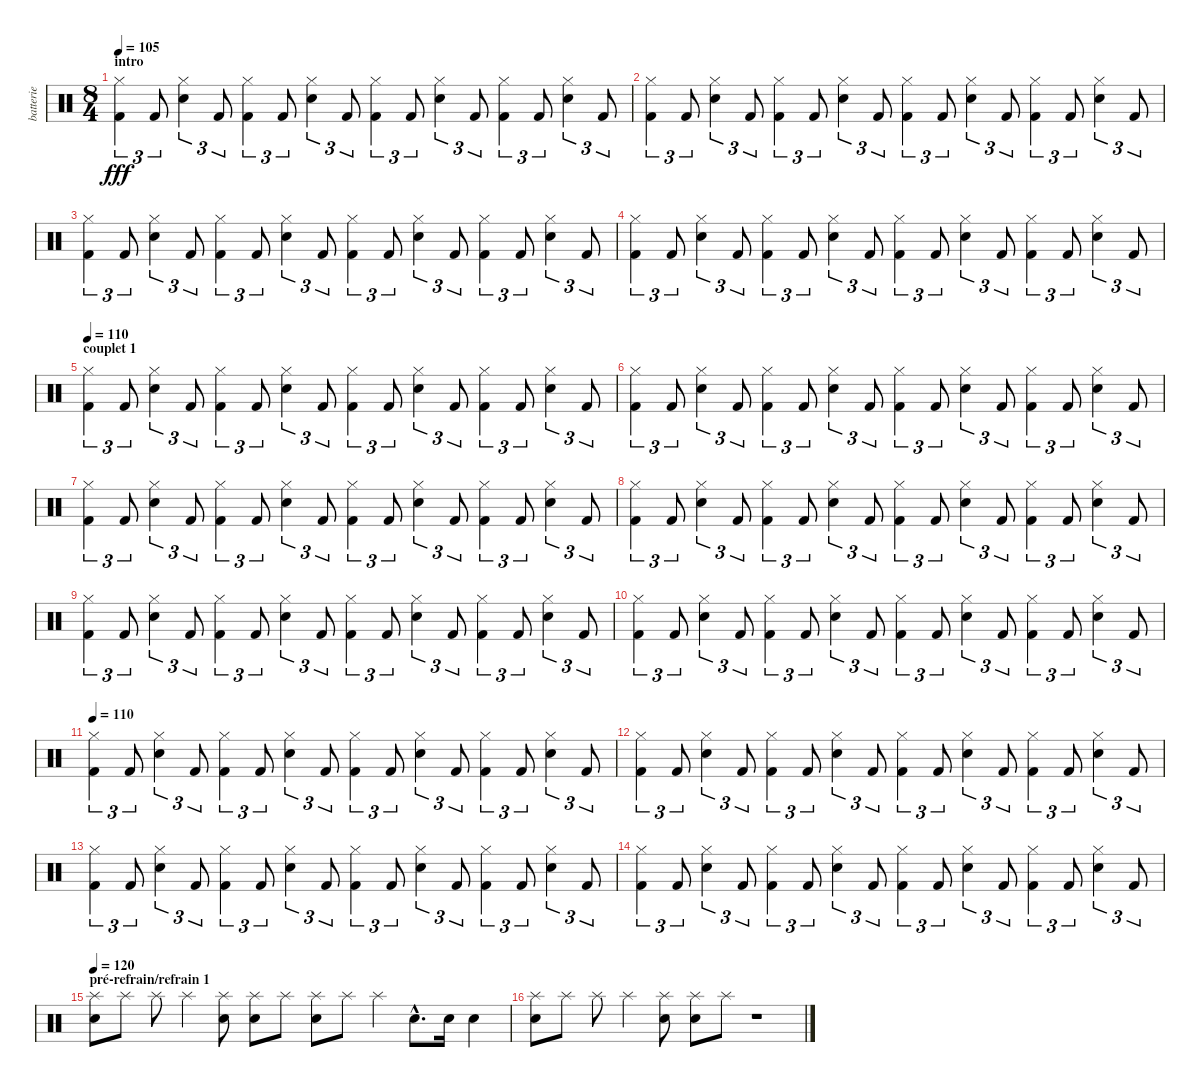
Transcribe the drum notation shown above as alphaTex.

\track ("batterie" "batterie") {instrument percussion}
\staff {score}
\articulation defaults
\ts (8 4)
\section ("" "intro")
\tempo 105
\tempo 110
\tempo 105
\clef neutral
\ks c
("Hi-Hat (closed)" "Kick (hit) 2").4{tu (3 2) dy fff volume 11} "Kick (hit) 2".8{tu (3 2)} ("Hi-Hat (closed)" "Electric Snare (hit)").4{tu (3 2)} "Kick (hit) 2".8{tu (3 2)} ("Hi-Hat (closed)" "Kick (hit) 2").4{tu (3 2)} "Kick (hit) 2".8{tu (3 2)} ("Hi-Hat (closed)" "Electric Snare (hit)").4{tu (3 2)} "Kick (hit) 2".8{tu (3 2)} ("Hi-Hat (closed)" "Kick (hit) 2").4{tu (3 2)} "Kick (hit) 2".8{tu (3 2)} ("Hi-Hat (closed)" "Electric Snare (hit)").4{tu (3 2)} "Kick (hit) 2".8{tu (3 2)} ("Hi-Hat (closed)" "Kick (hit) 2").4{tu (3 2)} "Kick (hit) 2".8{tu (3 2)} ("Hi-Hat (closed)" "Electric Snare (hit)").4{tu (3 2)} "Kick (hit) 2".8{tu (3 2)} |
("Hi-Hat (closed)" "Kick (hit) 2").4{tu (3 2)} "Kick (hit) 2".8{tu (3 2)} ("Hi-Hat (closed)" "Electric Snare (hit)").4{tu (3 2)} "Kick (hit) 2".8{tu (3 2)} ("Hi-Hat (closed)" "Kick (hit) 2").4{tu (3 2)} "Kick (hit) 2".8{tu (3 2)} ("Hi-Hat (closed)" "Electric Snare (hit)").4{tu (3 2)} "Kick (hit) 2".8{tu (3 2)} ("Hi-Hat (closed)" "Kick (hit) 2").4{tu (3 2)} "Kick (hit) 2".8{tu (3 2)} ("Hi-Hat (closed)" "Electric Snare (hit)").4{tu (3 2)} "Kick (hit) 2".8{tu (3 2)} ("Hi-Hat (closed)" "Kick (hit) 2").4{tu (3 2)} "Kick (hit) 2".8{tu (3 2)} ("Hi-Hat (closed)" "Electric Snare (hit)").4{tu (3 2)} "Kick (hit) 2".8{tu (3 2)} |
("Hi-Hat (closed)" "Kick (hit) 2").4{tu (3 2)} "Kick (hit) 2".8{tu (3 2)} ("Hi-Hat (closed)" "Electric Snare (hit)").4{tu (3 2)} "Kick (hit) 2".8{tu (3 2)} ("Hi-Hat (closed)" "Kick (hit) 2").4{tu (3 2)} "Kick (hit) 2".8{tu (3 2)} ("Hi-Hat (closed)" "Electric Snare (hit)").4{tu (3 2)} "Kick (hit) 2".8{tu (3 2)} ("Hi-Hat (closed)" "Kick (hit) 2").4{tu (3 2)} "Kick (hit) 2".8{tu (3 2)} ("Hi-Hat (closed)" "Electric Snare (hit)").4{tu (3 2)} "Kick (hit) 2".8{tu (3 2)} ("Hi-Hat (closed)" "Kick (hit) 2").4{tu (3 2)} "Kick (hit) 2".8{tu (3 2)} ("Hi-Hat (closed)" "Electric Snare (hit)").4{tu (3 2)} "Kick (hit) 2".8{tu (3 2)} |
("Hi-Hat (closed)" "Kick (hit) 2").4{tu (3 2)} "Kick (hit) 2".8{tu (3 2)} ("Hi-Hat (closed)" "Electric Snare (hit)").4{tu (3 2)} "Kick (hit) 2".8{tu (3 2)} ("Hi-Hat (closed)" "Kick (hit) 2").4{tu (3 2)} "Kick (hit) 2".8{tu (3 2)} ("Hi-Hat (closed)" "Electric Snare (hit)").4{tu (3 2)} "Kick (hit) 2".8{tu (3 2)} ("Hi-Hat (closed)" "Kick (hit) 2").4{tu (3 2)} "Kick (hit) 2".8{tu (3 2)} ("Hi-Hat (closed)" "Electric Snare (hit)").4{tu (3 2)} "Kick (hit) 2".8{tu (3 2)} ("Hi-Hat (closed)" "Kick (hit) 2").4{tu (3 2)} "Kick (hit) 2".8{tu (3 2)} ("Hi-Hat (closed)" "Electric Snare (hit)").4{tu (3 2)} "Kick (hit) 2".8{tu (3 2)} |
\section ("" "couplet 1")
\tempo 110
("Hi-Hat (closed)" "Kick (hit) 2").4{tu (3 2) volume 11} "Kick (hit) 2".8{tu (3 2)} ("Hi-Hat (closed)" "Electric Snare (hit)").4{tu (3 2)} "Kick (hit) 2".8{tu (3 2)} ("Hi-Hat (closed)" "Kick (hit) 2").4{tu (3 2)} "Kick (hit) 2".8{tu (3 2)} ("Hi-Hat (closed)" "Electric Snare (hit)").4{tu (3 2)} "Kick (hit) 2".8{tu (3 2)} ("Hi-Hat (closed)" "Kick (hit) 2").4{tu (3 2)} "Kick (hit) 2".8{tu (3 2)} ("Hi-Hat (closed)" "Electric Snare (hit)").4{tu (3 2)} "Kick (hit) 2".8{tu (3 2)} ("Hi-Hat (closed)" "Kick (hit) 2").4{tu (3 2)} "Kick (hit) 2".8{tu (3 2)} ("Hi-Hat (closed)" "Electric Snare (hit)").4{tu (3 2)} "Kick (hit) 2".8{tu (3 2)} |
("Hi-Hat (closed)" "Kick (hit) 2").4{tu (3 2)} "Kick (hit) 2".8{tu (3 2)} ("Hi-Hat (closed)" "Electric Snare (hit)").4{tu (3 2)} "Kick (hit) 2".8{tu (3 2)} ("Hi-Hat (closed)" "Kick (hit) 2").4{tu (3 2)} "Kick (hit) 2".8{tu (3 2)} ("Hi-Hat (closed)" "Electric Snare (hit)").4{tu (3 2)} "Kick (hit) 2".8{tu (3 2)} ("Hi-Hat (closed)" "Kick (hit) 2").4{tu (3 2)} "Kick (hit) 2".8{tu (3 2)} ("Hi-Hat (closed)" "Electric Snare (hit)").4{tu (3 2)} "Kick (hit) 2".8{tu (3 2)} ("Hi-Hat (closed)" "Kick (hit) 2").4{tu (3 2)} "Kick (hit) 2".8{tu (3 2)} ("Hi-Hat (closed)" "Electric Snare (hit)").4{tu (3 2)} "Kick (hit) 2".8{tu (3 2)} |
("Hi-Hat (closed)" "Kick (hit) 2").4{tu (3 2)} "Kick (hit) 2".8{tu (3 2)} ("Hi-Hat (closed)" "Electric Snare (hit)").4{tu (3 2)} "Kick (hit) 2".8{tu (3 2)} ("Hi-Hat (closed)" "Kick (hit) 2").4{tu (3 2)} "Kick (hit) 2".8{tu (3 2)} ("Hi-Hat (closed)" "Electric Snare (hit)").4{tu (3 2)} "Kick (hit) 2".8{tu (3 2)} ("Hi-Hat (closed)" "Kick (hit) 2").4{tu (3 2)} "Kick (hit) 2".8{tu (3 2)} ("Hi-Hat (closed)" "Electric Snare (hit)").4{tu (3 2)} "Kick (hit) 2".8{tu (3 2)} ("Hi-Hat (closed)" "Kick (hit) 2").4{tu (3 2)} "Kick (hit) 2".8{tu (3 2)} ("Hi-Hat (closed)" "Electric Snare (hit)").4{tu (3 2)} "Kick (hit) 2".8{tu (3 2)} |
("Hi-Hat (closed)" "Kick (hit) 2").4{tu (3 2)} "Kick (hit) 2".8{tu (3 2)} ("Hi-Hat (closed)" "Electric Snare (hit)").4{tu (3 2)} "Kick (hit) 2".8{tu (3 2)} ("Hi-Hat (closed)" "Kick (hit) 2").4{tu (3 2)} "Kick (hit) 2".8{tu (3 2)} ("Hi-Hat (closed)" "Electric Snare (hit)").4{tu (3 2)} "Kick (hit) 2".8{tu (3 2)} ("Hi-Hat (closed)" "Kick (hit) 2").4{tu (3 2)} "Kick (hit) 2".8{tu (3 2)} ("Hi-Hat (closed)" "Electric Snare (hit)").4{tu (3 2)} "Kick (hit) 2".8{tu (3 2)} ("Hi-Hat (closed)" "Kick (hit) 2").4{tu (3 2)} "Kick (hit) 2".8{tu (3 2)} ("Hi-Hat (closed)" "Electric Snare (hit)").4{tu (3 2)} "Kick (hit) 2".8{tu (3 2)} |
("Hi-Hat (closed)" "Kick (hit) 2").4{tu (3 2) volume 13} "Kick (hit) 2".8{tu (3 2)} ("Hi-Hat (closed)" "Electric Snare (hit)").4{tu (3 2)} "Kick (hit) 2".8{tu (3 2)} ("Hi-Hat (closed)" "Kick (hit) 2").4{tu (3 2)} "Kick (hit) 2".8{tu (3 2)} ("Hi-Hat (closed)" "Electric Snare (hit)").4{tu (3 2)} "Kick (hit) 2".8{tu (3 2)} ("Hi-Hat (closed)" "Kick (hit) 2").4{tu (3 2)} "Kick (hit) 2".8{tu (3 2)} ("Hi-Hat (closed)" "Electric Snare (hit)").4{tu (3 2)} "Kick (hit) 2".8{tu (3 2)} ("Hi-Hat (closed)" "Kick (hit) 2").4{tu (3 2)} "Kick (hit) 2".8{tu (3 2)} ("Hi-Hat (closed)" "Electric Snare (hit)").4{tu (3 2)} "Kick (hit) 2".8{tu (3 2)} |
("Hi-Hat (closed)" "Kick (hit) 2").4{tu (3 2)} "Kick (hit) 2".8{tu (3 2)} ("Hi-Hat (closed)" "Electric Snare (hit)").4{tu (3 2)} "Kick (hit) 2".8{tu (3 2)} ("Hi-Hat (closed)" "Kick (hit) 2").4{tu (3 2)} "Kick (hit) 2".8{tu (3 2)} ("Hi-Hat (closed)" "Electric Snare (hit)").4{tu (3 2)} "Kick (hit) 2".8{tu (3 2)} ("Hi-Hat (closed)" "Kick (hit) 2").4{tu (3 2)} "Kick (hit) 2".8{tu (3 2)} ("Hi-Hat (closed)" "Electric Snare (hit)").4{tu (3 2)} "Kick (hit) 2".8{tu (3 2)} ("Hi-Hat (closed)" "Kick (hit) 2").4{tu (3 2)} "Kick (hit) 2".8{tu (3 2)} ("Hi-Hat (closed)" "Electric Snare (hit)").4{tu (3 2)} "Kick (hit) 2".8{tu (3 2)} |
\tempo 110
("Hi-Hat (closed)" "Kick (hit) 2").4{tu (3 2) volume 11} "Kick (hit) 2".8{tu (3 2)} ("Hi-Hat (closed)" "Electric Snare (hit)").4{tu (3 2)} "Kick (hit) 2".8{tu (3 2)} ("Hi-Hat (closed)" "Kick (hit) 2").4{tu (3 2)} "Kick (hit) 2".8{tu (3 2)} ("Hi-Hat (closed)" "Electric Snare (hit)").4{tu (3 2)} "Kick (hit) 2".8{tu (3 2)} ("Hi-Hat (closed)" "Kick (hit) 2").4{tu (3 2)} "Kick (hit) 2".8{tu (3 2)} ("Hi-Hat (closed)" "Electric Snare (hit)").4{tu (3 2)} "Kick (hit) 2".8{tu (3 2)} ("Hi-Hat (closed)" "Kick (hit) 2").4{tu (3 2)} "Kick (hit) 2".8{tu (3 2)} ("Hi-Hat (closed)" "Electric Snare (hit)").4{tu (3 2)} "Kick (hit) 2".8{tu (3 2)} |
("Hi-Hat (closed)" "Kick (hit) 2").4{tu (3 2)} "Kick (hit) 2".8{tu (3 2)} ("Hi-Hat (closed)" "Electric Snare (hit)").4{tu (3 2)} "Kick (hit) 2".8{tu (3 2)} ("Hi-Hat (closed)" "Kick (hit) 2").4{tu (3 2)} "Kick (hit) 2".8{tu (3 2)} ("Hi-Hat (closed)" "Electric Snare (hit)").4{tu (3 2)} "Kick (hit) 2".8{tu (3 2)} ("Hi-Hat (closed)" "Kick (hit) 2").4{tu (3 2)} "Kick (hit) 2".8{tu (3 2)} ("Hi-Hat (closed)" "Electric Snare (hit)").4{tu (3 2)} "Kick (hit) 2".8{tu (3 2)} ("Hi-Hat (closed)" "Kick (hit) 2").4{tu (3 2)} "Kick (hit) 2".8{tu (3 2)} ("Hi-Hat (closed)" "Electric Snare (hit)").4{tu (3 2)} "Kick (hit) 2".8{tu (3 2)} |
("Hi-Hat (closed)" "Kick (hit) 2").4{tu (3 2)} "Kick (hit) 2".8{tu (3 2)} ("Hi-Hat (closed)" "Electric Snare (hit)").4{tu (3 2)} "Kick (hit) 2".8{tu (3 2)} ("Hi-Hat (closed)" "Kick (hit) 2").4{tu (3 2)} "Kick (hit) 2".8{tu (3 2)} ("Hi-Hat (closed)" "Electric Snare (hit)").4{tu (3 2)} "Kick (hit) 2".8{tu (3 2)} ("Hi-Hat (closed)" "Kick (hit) 2").4{tu (3 2)} "Kick (hit) 2".8{tu (3 2)} ("Hi-Hat (closed)" "Electric Snare (hit)").4{tu (3 2)} "Kick (hit) 2".8{tu (3 2)} ("Hi-Hat (closed)" "Kick (hit) 2").4{tu (3 2)} "Kick (hit) 2".8{tu (3 2)} ("Hi-Hat (closed)" "Electric Snare (hit)").4{tu (3 2)} "Kick (hit) 2".8{tu (3 2)} |
("Hi-Hat (closed)" "Kick (hit) 2").4{tu (3 2)} "Kick (hit) 2".8{tu (3 2)} ("Hi-Hat (closed)" "Electric Snare (hit)").4{tu (3 2)} "Kick (hit) 2".8{tu (3 2)} ("Hi-Hat (closed)" "Kick (hit) 2").4{tu (3 2)} "Kick (hit) 2".8{tu (3 2)} ("Hi-Hat (closed)" "Electric Snare (hit)").4{tu (3 2)} "Kick (hit) 2".8{tu (3 2)} ("Hi-Hat (closed)" "Kick (hit) 2").4{tu (3 2)} "Kick (hit) 2".8{tu (3 2)} ("Hi-Hat (closed)" "Electric Snare (hit)").4{tu (3 2)} "Kick (hit) 2".8{tu (3 2)} ("Hi-Hat (closed)" "Kick (hit) 2").4{tu (3 2)} "Kick (hit) 2".8{tu (3 2)} ("Hi-Hat (closed)" "Electric Snare (hit)").4{tu (3 2)} "Kick (hit) 2".8{tu (3 2)} |
\section ("" "pré-refrain/refrain 1")
\tempo 120
("Splash (hit)" "Electric Snare (hit)").8 "Splash (hit)".8 "Splash (hit)".8 "Splash (hit)".4 ("Splash (hit)" "Electric Snare (hit)").8 ("Splash (hit)" "Electric Snare (hit)").8 "Splash (hit)".8 ("Splash (hit)" "Electric Snare (hit)").8 "Splash (hit)".8 "Splash (hit)".4 "Electric Snare (hit)"{hac}.8{d} "Electric Snare (hit)".16 "Electric Snare (hit)".4 |
("Splash (hit)" "Electric Snare (hit)").8 "Splash (hit)".8 "Splash (hit)".8 "Splash (hit)".4 ("Splash (hit)" "Electric Snare (hit)").8 ("Splash (hit)" "Electric Snare (hit)").8 "Splash (hit)".8 r.1
